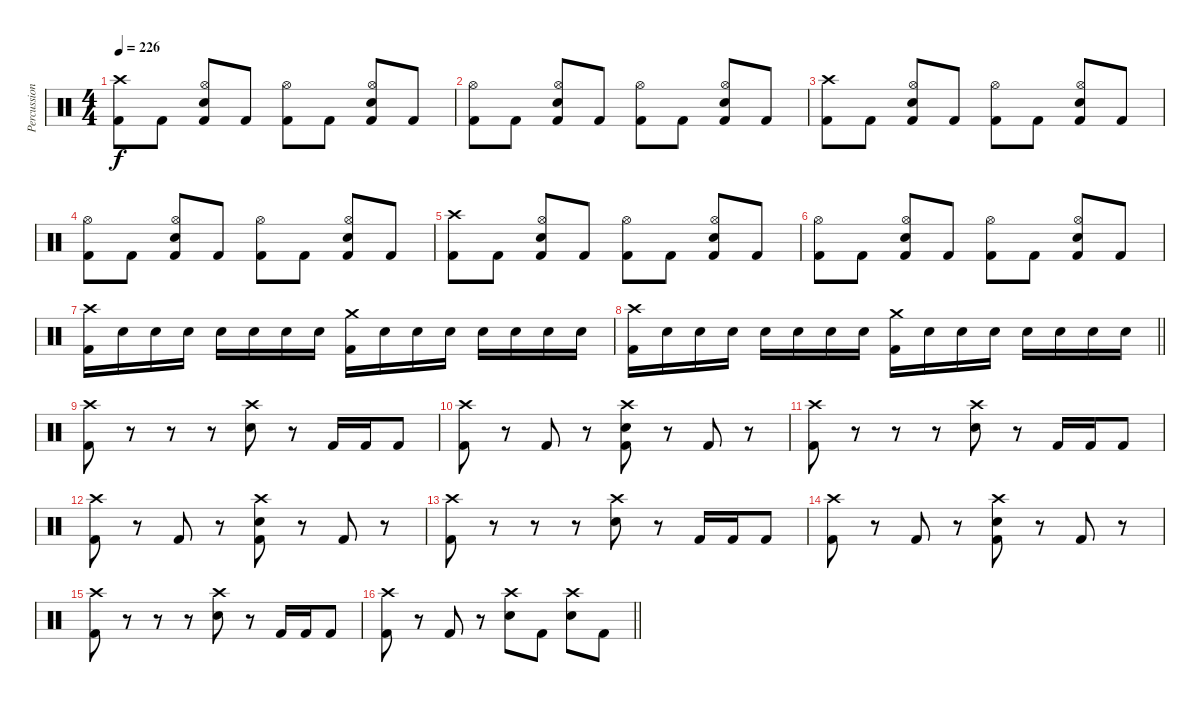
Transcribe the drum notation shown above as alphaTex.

\track ("Percussion" "Percussion") {instrument percussion}
\staff {score}
\articulation defaults
\ts (4 4)
\tempo 226
\clef neutral
\ks c
("Crash high (hit)" "Kick (hit) 2").8{dy f} "Kick (hit) 2".8 ("Hi-Hat (open)" "Snare (hit) 2" "Kick (hit) 2").8 "Kick (hit) 2".8 ("Hi-Hat (open)" "Kick (hit) 2").8 "Kick (hit) 2".8 ("Hi-Hat (open)" "Snare (hit) 2" "Kick (hit) 2").8 "Kick (hit) 2".8 |
("Hi-Hat (open)" "Kick (hit) 2").8 "Kick (hit) 2".8 ("Hi-Hat (open)" "Snare (hit) 2" "Kick (hit) 2").8 "Kick (hit) 2".8 ("Hi-Hat (open)" "Kick (hit) 2").8 "Kick (hit) 2".8 ("Hi-Hat (open)" "Snare (hit) 2" "Kick (hit) 2").8 "Kick (hit) 2".8 |
("Crash high (hit)" "Kick (hit) 2").8 "Kick (hit) 2".8 ("Hi-Hat (open)" "Snare (hit) 2" "Kick (hit) 2").8 "Kick (hit) 2".8 ("Hi-Hat (open)" "Kick (hit) 2").8 "Kick (hit) 2".8 ("Hi-Hat (open)" "Snare (hit) 2" "Kick (hit) 2").8 "Kick (hit) 2".8 |
("Hi-Hat (open)" "Kick (hit) 2").8 "Kick (hit) 2".8 ("Hi-Hat (open)" "Snare (hit) 2" "Kick (hit) 2").8 "Kick (hit) 2".8 ("Hi-Hat (open)" "Kick (hit) 2").8 "Kick (hit) 2".8 ("Hi-Hat (open)" "Snare (hit) 2" "Kick (hit) 2").8 "Kick (hit) 2".8 |
("Crash high (hit)" "Kick (hit) 2").8 "Kick (hit) 2".8 ("Hi-Hat (open)" "Snare (hit) 2" "Kick (hit) 2").8 "Kick (hit) 2".8 ("Hi-Hat (open)" "Kick (hit) 2").8 "Kick (hit) 2".8 ("Hi-Hat (open)" "Snare (hit) 2" "Kick (hit) 2").8 "Kick (hit) 2".8 |
("Hi-Hat (open)" "Kick (hit) 2").8 "Kick (hit) 2".8 ("Hi-Hat (open)" "Snare (hit) 2" "Kick (hit) 2").8 "Kick (hit) 2".8 ("Hi-Hat (open)" "Kick (hit) 2").8 "Kick (hit) 2".8 ("Hi-Hat (open)" "Snare (hit) 2" "Kick (hit) 2").8 "Kick (hit) 2".8 |
("Crash high (hit)" "Kick (hit) 2").16 "Snare (hit) 2".16 "Snare (hit) 2".16 "Snare (hit) 2".16 "Snare (hit) 2".16 "Snare (hit) 2".16 "Snare (hit) 2".16 "Snare (hit) 2".16 ("Crash medium (hit)" "Kick (hit) 2").16 "Snare (hit) 2".16 "Snare (hit) 2".16 "Snare (hit) 2".16 "Snare (hit) 2".16 "Snare (hit) 2".16 "Snare (hit) 2".16 "Snare (hit) 2".16 |
\barLineRight lightlight
("Crash high (hit)" "Kick (hit) 2").16 "Snare (hit) 2".16 "Snare (hit) 2".16 "Snare (hit) 2".16 "Snare (hit) 2".16 "Snare (hit) 2".16 "Snare (hit) 2".16 "Snare (hit) 2".16 ("Crash medium (hit)" "Kick (hit) 2").16 "Snare (hit) 2".16 "Snare (hit) 2".16 "Snare (hit) 2".16 "Snare (hit) 2".16 "Snare (hit) 2".16 "Snare (hit) 2".16 "Snare (hit) 2".16 |
\section ("" "")
("Crash high (hit)" "Kick (hit) 2").8 r.8 r.8 r.8 ("Crash high (hit)" "Snare (hit) 2").8 r.8 "Kick (hit) 2".16 "Kick (hit) 2".16 "Kick (hit) 2".8 |
("Crash high (hit)" "Kick (hit) 2").8 r.8 "Kick (hit) 2".8 r.8 ("Crash high (hit)" "Snare (hit) 2" "Kick (hit) 2").8 r.8 "Kick (hit) 2".8 r.8 |
("Crash high (hit)" "Kick (hit) 2").8 r.8 r.8 r.8 ("Crash high (hit)" "Snare (hit) 2").8 r.8 "Kick (hit) 2".16 "Kick (hit) 2".16 "Kick (hit) 2".8 |
("Crash high (hit)" "Kick (hit) 2").8 r.8 "Kick (hit) 2".8 r.8 ("Crash high (hit)" "Snare (hit) 2" "Kick (hit) 2").8 r.8 "Kick (hit) 2".8 r.8 |
("Crash high (hit)" "Kick (hit) 2").8 r.8 r.8 r.8 ("Crash high (hit)" "Snare (hit) 2").8 r.8 "Kick (hit) 2".16 "Kick (hit) 2".16 "Kick (hit) 2".8 |
("Crash high (hit)" "Kick (hit) 2").8 r.8 "Kick (hit) 2".8 r.8 ("Crash high (hit)" "Snare (hit) 2" "Kick (hit) 2").8 r.8 "Kick (hit) 2".8 r.8 |
("Crash high (hit)" "Kick (hit) 2").8 r.8 r.8 r.8 ("Crash high (hit)" "Snare (hit) 2").8 r.8 "Kick (hit) 2".16 "Kick (hit) 2".16 "Kick (hit) 2".8 |
\barLineRight lightlight
("Crash high (hit)" "Kick (hit) 2").8 r.8 "Kick (hit) 2".8 r.8 ("Crash high (hit)" "Snare (hit) 2").8 "Kick (hit) 2".8 ("Crash high (hit)" "Snare (hit) 2").8 "Kick (hit) 2".8
